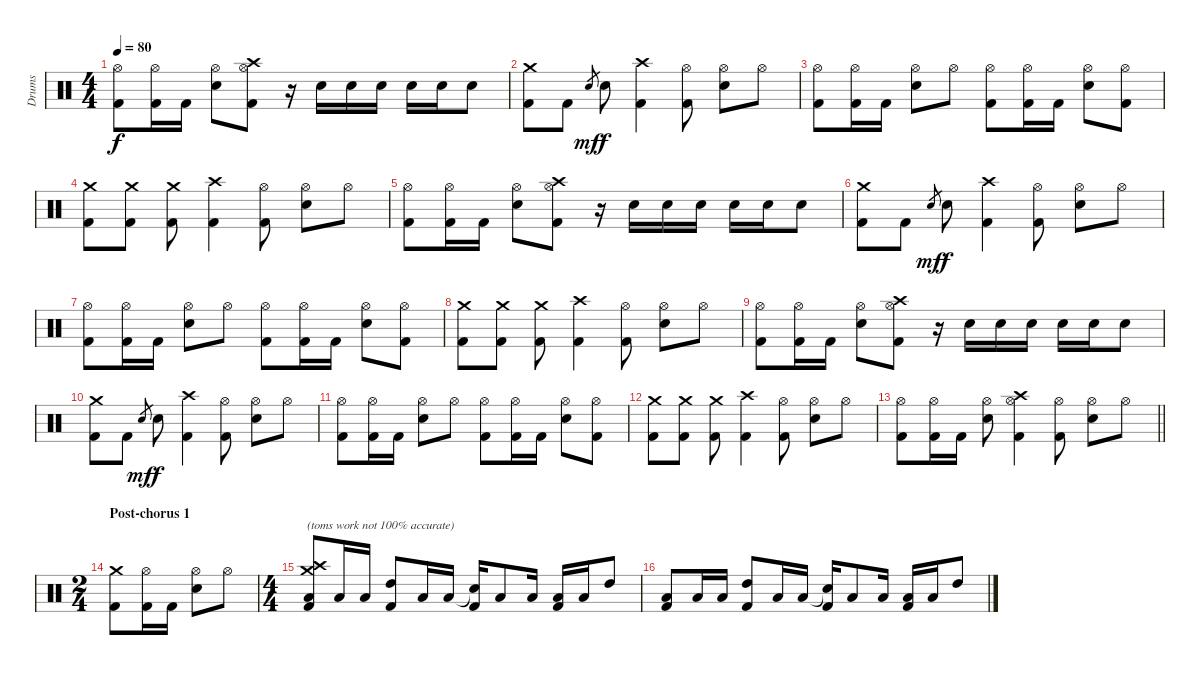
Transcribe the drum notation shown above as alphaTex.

\track ("Drums" "Drums") {solo instrument percussion}
\staff {score}
\articulation defaults
\ts (4 4)
\tempo 80
\clef neutral
\ks c
("Hi-Hat (open)" "Kick (hit) 2").8{dy f} ("Hi-Hat (open)" "Kick (hit) 2").16 "Kick (hit) 2".16 ("Hi-Hat (open)" "Electric Snare (hit)").8 ("Hi-Hat (open)" "Crash high (hit)" "Kick (hit) 2").8 r.16 "Electric Snare (hit)".16 "Electric Snare (hit)".16 "Electric Snare (hit)".16 "Electric Snare (hit)".16 "Electric Snare (hit)".16 "Electric Snare (hit)".8 |
("Crash medium (hit)" "Kick (hit) 2").8 "Kick (hit) 2".8 "Electric Snare (hit)".8{gr dy mf} "Electric Snare (hit)".8{dy f} ("Crash high (hit)" "Kick (hit) 2").4 ("Hi-Hat (open)" "Kick (hit) 2").8 ("Hi-Hat (open)" "Electric Snare (hit)").8 "Hi-Hat (open)".8 |
("Hi-Hat (open)" "Kick (hit) 2").8 ("Hi-Hat (open)" "Kick (hit) 2").16 "Kick (hit) 2".16 ("Hi-Hat (open)" "Electric Snare (hit)").8 "Hi-Hat (open)".8 ("Hi-Hat (open)" "Kick (hit) 2").8 ("Hi-Hat (open)" "Kick (hit) 2").16 "Kick (hit) 2".16 ("Hi-Hat (open)" "Electric Snare (hit)").8 ("Hi-Hat (open)" "Kick (hit) 2").8 |
("Crash medium (hit)" "Kick (hit) 2").8 ("Crash medium (hit)" "Kick (hit) 2").8 ("Crash medium (hit)" "Kick (hit) 2").8 ("Crash high (hit)" "Kick (hit) 2").4 ("Hi-Hat (open)" "Kick (hit) 2").8 ("Hi-Hat (open)" "Electric Snare (hit)").8 "Hi-Hat (open)".8 |
("Hi-Hat (open)" "Kick (hit) 2").8 ("Hi-Hat (open)" "Kick (hit) 2").16 "Kick (hit) 2".16 ("Hi-Hat (open)" "Electric Snare (hit)").8 ("Hi-Hat (open)" "Crash high (hit)" "Kick (hit) 2").8 r.16 "Electric Snare (hit)".16 "Electric Snare (hit)".16 "Electric Snare (hit)".16 "Electric Snare (hit)".16 "Electric Snare (hit)".16 "Electric Snare (hit)".8 |
("Crash medium (hit)" "Kick (hit) 2").8 "Kick (hit) 2".8 "Electric Snare (hit)".8{gr dy mf} "Electric Snare (hit)".8{dy f} ("Crash high (hit)" "Kick (hit) 2").4 ("Hi-Hat (open)" "Kick (hit) 2").8 ("Hi-Hat (open)" "Electric Snare (hit)").8 "Hi-Hat (open)".8 |
("Hi-Hat (open)" "Kick (hit) 2").8 ("Hi-Hat (open)" "Kick (hit) 2").16 "Kick (hit) 2".16 ("Hi-Hat (open)" "Electric Snare (hit)").8 "Hi-Hat (open)".8 ("Hi-Hat (open)" "Kick (hit) 2").8 ("Hi-Hat (open)" "Kick (hit) 2").16 "Kick (hit) 2".16 ("Hi-Hat (open)" "Electric Snare (hit)").8 ("Hi-Hat (open)" "Kick (hit) 2").8 |
("Crash medium (hit)" "Kick (hit) 2").8 ("Crash medium (hit)" "Kick (hit) 2").8 ("Crash medium (hit)" "Kick (hit) 2").8 ("Crash high (hit)" "Kick (hit) 2").4 ("Hi-Hat (open)" "Kick (hit) 2").8 ("Hi-Hat (open)" "Electric Snare (hit)").8 "Hi-Hat (open)".8 |
("Hi-Hat (open)" "Kick (hit) 2").8 ("Hi-Hat (open)" "Kick (hit) 2").16 "Kick (hit) 2".16 ("Hi-Hat (open)" "Electric Snare (hit)").8 ("Hi-Hat (open)" "Crash high (hit)" "Kick (hit) 2").8 r.16 "Electric Snare (hit)".16 "Electric Snare (hit)".16 "Electric Snare (hit)".16 "Electric Snare (hit)".16 "Electric Snare (hit)".16 "Electric Snare (hit)".8 |
("Crash medium (hit)" "Kick (hit) 2").8 "Kick (hit) 2".8 "Electric Snare (hit)".8{gr dy mf} "Electric Snare (hit)".8{dy f} ("Crash high (hit)" "Kick (hit) 2").4 ("Hi-Hat (open)" "Kick (hit) 2").8 ("Hi-Hat (open)" "Electric Snare (hit)").8 "Hi-Hat (open)".8 |
("Hi-Hat (open)" "Kick (hit) 2").8 ("Hi-Hat (open)" "Kick (hit) 2").16 "Kick (hit) 2".16 ("Hi-Hat (open)" "Electric Snare (hit)").8 "Hi-Hat (open)".8 ("Hi-Hat (open)" "Kick (hit) 2").8 ("Hi-Hat (open)" "Kick (hit) 2").16 "Kick (hit) 2".16 ("Hi-Hat (open)" "Electric Snare (hit)").8 ("Hi-Hat (open)" "Kick (hit) 2").8 |
("Crash medium (hit)" "Kick (hit) 2").8 ("Crash medium (hit)" "Kick (hit) 2").8 ("Crash medium (hit)" "Kick (hit) 2").8 ("Crash high (hit)" "Kick (hit) 2").4 ("Hi-Hat (open)" "Kick (hit) 2").8 ("Hi-Hat (open)" "Electric Snare (hit)").8 "Hi-Hat (open)".8 |
\barLineRight lightlight
("Hi-Hat (open)" "Kick (hit) 2").8 ("Hi-Hat (open)" "Kick (hit) 2").16 "Kick (hit) 2".16 ("Hi-Hat (open)" "Electric Snare (hit)").8 ("Hi-Hat (open)" "Crash high (hit)" "Kick (hit) 2").4 ("Hi-Hat (open)" "Kick (hit) 2").8 ("Hi-Hat (open)" "Electric Snare (hit)").8 "Hi-Hat (open)".8 |
\ts (2 4)
\section ("" "Post-chorus 1")
("Crash medium (hit)" "Kick (hit) 2").8 ("Hi-Hat (open)" "Kick (hit) 2").16 "Kick (hit) 2".16 ("Hi-Hat (open)" "Electric Snare (hit)").8 "Hi-Hat (open)".8 |
\ts (4 4)
("Crash high (hit)" "Crash medium (hit)" "Low Tom (hit)" "Kick (hit) 2").8{txt "(toms work not 100% accurate)"} "Low Tom (hit)".16 "Low Tom (hit)".16 ("High Tom (hit)" "Kick (hit) 2").8 "Low Tom (hit)".16 "Low Tom (hit)".16 ("Snare (hit)"{t} "Kick (hit) 2").16 "Low Tom (hit)".8 "Low Tom (hit)".16 ("Low Tom (hit)" "Kick (hit) 2").16 "Low Tom (hit)".16 "High Tom (hit)".8 |
("Low Tom (hit)" "Kick (hit) 2").8 "Low Tom (hit)".16 "Low Tom (hit)".16 ("High Tom (hit)" "Kick (hit) 2").8 "Low Tom (hit)".16 "Low Tom (hit)".16 ("Snare (hit)"{t} "Kick (hit) 2").16 "Low Tom (hit)".8 "Low Tom (hit)".16 ("Low Tom (hit)" "Kick (hit) 2").16 "Low Tom (hit)".16 "High Tom (hit)".8
